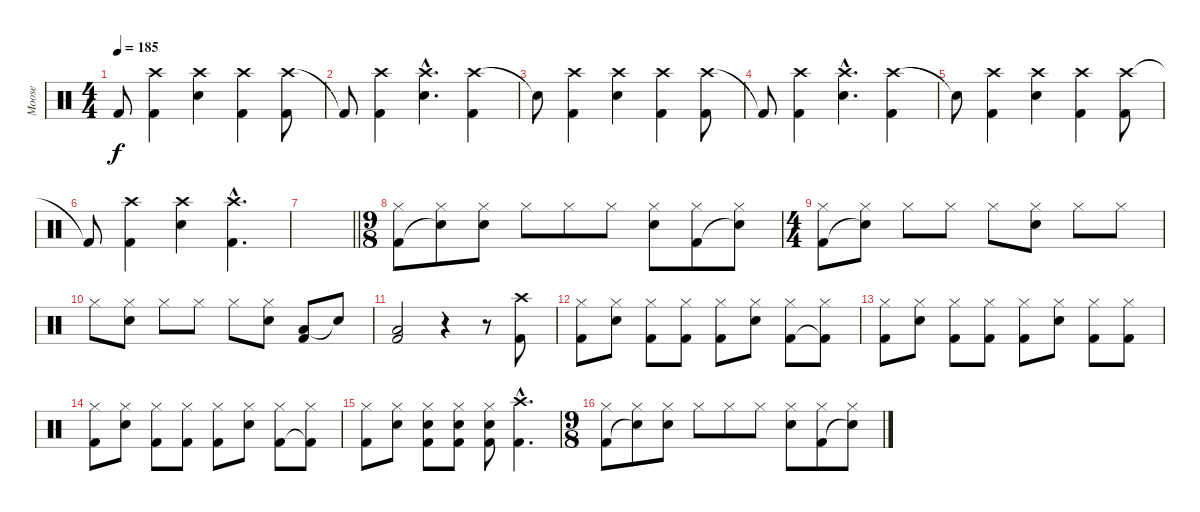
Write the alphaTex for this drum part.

\track ("Moose" "Moose") {instrument percussion}
\staff {score}
\articulation defaults
\ts (4 4)
\tempo 185
\clef neutral
\ks c "Kick (hit) 2"{t}.8{dy f}
("Crash high (hit)" "Kick (hit) 2").4 ("Crash high (hit)" "Snare (hit) 2").4 ("Crash high (hit)" "Kick (hit) 2").4 ("Crash high (hit)" "Kick (hit) 2").8 |
"Kick (hit) 2"{t}.8 ("Crash high (hit)" "Kick (hit) 2").4 ("Crash high (hit)"{hac} "Snare (hit) 2"{hac}).4{d} ("Crash high (hit)" "Kick (hit) 2").4 |
"Snare (hit)"{t}.8 ("Crash high (hit)" "Kick (hit) 2").4 ("Crash high (hit)" "Snare (hit) 2").4 ("Crash high (hit)" "Kick (hit) 2").4 ("Crash high (hit)" "Kick (hit) 2").8 |
"Kick (hit) 2"{t}.8 ("Crash high (hit)" "Kick (hit) 2").4 ("Crash high (hit)"{hac} "Snare (hit) 2"{hac}).4{d} ("Crash high (hit)" "Kick (hit) 2").4 |
"Snare (hit)"{t}.8 ("Crash high (hit)" "Kick (hit) 2").4 ("Crash high (hit)" "Snare (hit) 2").4 ("Crash high (hit)" "Kick (hit) 2").4 ("Crash high (hit)" "Kick (hit) 2").8 |
"Kick (hit) 2"{t}.8 ("Crash high (hit)" "Kick (hit) 2").4 ("Crash high (hit)" "Snare (hit) 2").4 ("Crash high (hit)"{hac} "Kick (hit) 2"{hac}).4{d} |
\barLineRight lightlight
|
\ts (9 8)
("Hi-Hat (closed)" "Kick (hit) 2").8 ("Hi-Hat (closed)" "Snare (hit)"{t}).8 ("Hi-Hat (closed)" "Snare (hit) 2").8 "Hi-Hat (closed)".8 "Hi-Hat (closed)".8 "Hi-Hat (closed)".8 ("Hi-Hat (closed)" "Snare (hit) 2").8 ("Hi-Hat (closed)" "Kick (hit) 2").8 ("Hi-Hat (closed)" "Snare (hit)"{t}).8 |
\ts (4 4)
("Hi-Hat (closed)" "Kick (hit) 2").8 ("Hi-Hat (closed)" "Snare (hit)"{t}).8 "Hi-Hat (closed)".8 "Hi-Hat (closed)".8 "Hi-Hat (closed)".8 ("Hi-Hat (closed)" "Snare (hit) 2").8 "Hi-Hat (closed)".8 "Hi-Hat (closed)".8 |
"Hi-Hat (closed)".8 ("Hi-Hat (closed)" "Snare (hit) 2").8 "Hi-Hat (closed)".8 "Hi-Hat (closed)".8 "Hi-Hat (closed)".8 ("Hi-Hat (closed)" "Snare (hit) 2").8 ("Low Tom (hit)" "Kick (hit) 2").8 "Snare (hit)"{t}.8 |
("Low Tom (hit)" "Kick (hit) 2").2 r.4 r.8 ("Crash high (hit)" "Kick (hit) 2").8 |
("Hi-Hat (closed)" "Kick (hit) 2").8 ("Hi-Hat (closed)" "Snare (hit) 2").8 ("Hi-Hat (closed)" "Kick (hit) 2").8 ("Hi-Hat (closed)" "Kick (hit) 2").8 ("Hi-Hat (closed)" "Kick (hit) 2").8 ("Hi-Hat (closed)" "Snare (hit) 2").8 ("Hi-Hat (closed)" "Kick (hit) 2").8 ("Hi-Hat (closed)" "Kick (hit) 2"{t}).8 |
("Hi-Hat (closed)" "Kick (hit) 2").8 ("Hi-Hat (closed)" "Snare (hit) 2").8 ("Hi-Hat (closed)" "Kick (hit) 2").8 ("Hi-Hat (closed)" "Kick (hit) 2").8 ("Hi-Hat (closed)" "Kick (hit) 2").8 ("Hi-Hat (closed)" "Snare (hit) 2").8 ("Hi-Hat (closed)" "Kick (hit) 2").8 ("Hi-Hat (closed)" "Kick (hit) 2").8 |
("Hi-Hat (closed)" "Kick (hit) 2").8 ("Hi-Hat (closed)" "Snare (hit) 2").8 ("Hi-Hat (closed)" "Kick (hit) 2").8 ("Hi-Hat (closed)" "Kick (hit) 2").8 ("Hi-Hat (closed)" "Kick (hit) 2").8 ("Hi-Hat (closed)" "Snare (hit) 2").8 ("Hi-Hat (closed)" "Kick (hit) 2").8 ("Hi-Hat (closed)" "Kick (hit) 2"{t}).8 |
("Hi-Hat (closed)" "Kick (hit) 2").8 ("Hi-Hat (closed)" "Snare (hit) 2").8 ("Hi-Hat (closed)" "Snare (hit) 2" "Kick (hit) 2").8 ("Hi-Hat (closed)" "Snare (hit) 2" "Kick (hit) 2").8 ("Hi-Hat (closed)" "Snare (hit) 2" "Kick (hit) 2").8 ("Crash high (hit)"{hac} "Kick (hit) 2"{hac}).4{d} |
\ts (9 8)
("Hi-Hat (closed)" "Kick (hit) 2").8 ("Hi-Hat (closed)" "Snare (hit)"{t}).8 ("Hi-Hat (closed)" "Snare (hit) 2").8 "Hi-Hat (closed)".8 "Hi-Hat (closed)".8 "Hi-Hat (closed)".8 ("Hi-Hat (closed)" "Snare (hit) 2").8 ("Hi-Hat (closed)" "Kick (hit) 2").8 ("Hi-Hat (closed)" "Snare (hit)"{t}).8
